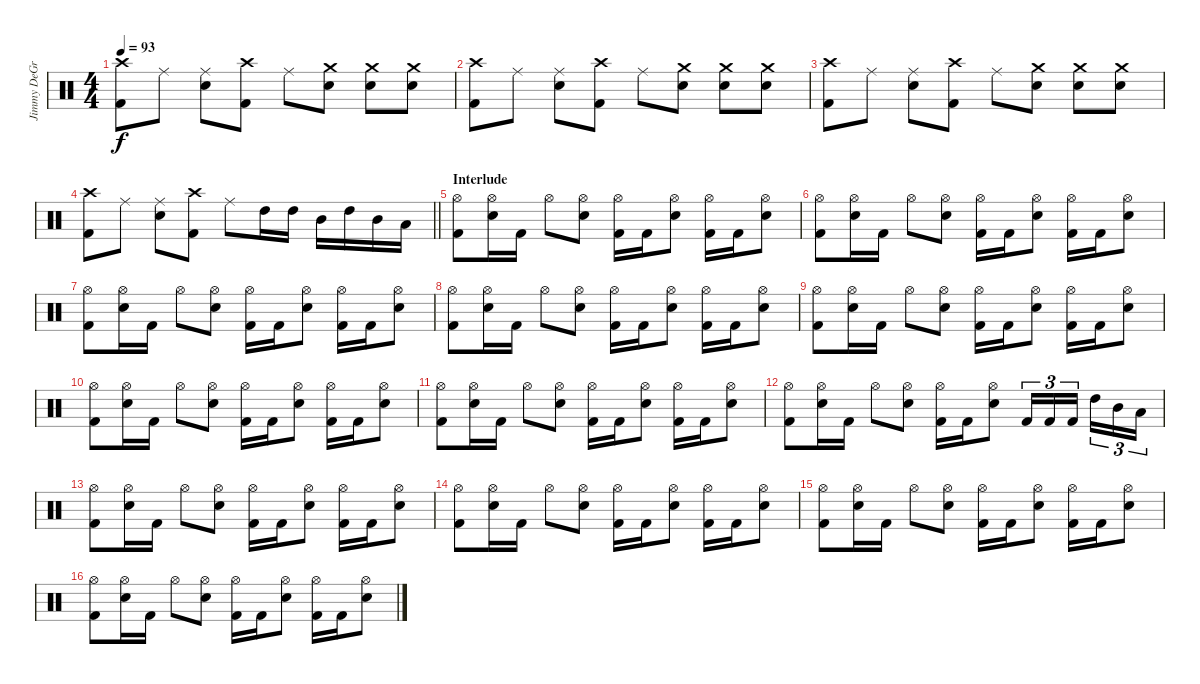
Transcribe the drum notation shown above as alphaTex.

\track ("Jimmy DeGrasso" "Jimmy DeGr") {instrument percussion}
\staff {score}
\articulation defaults
\ts (4 4)
\tempo 93
\clef neutral
\ks c
("Crash high (hit)" "Kick (hit) 2").8{dy f} "Ride (middle)".8 ("Ride (middle)" "Electric Snare (hit)").8 ("Crash high (hit)" "Kick (hit) 2").8 "Ride (middle)".8 ("Crash medium (hit)" "Electric Snare (hit)").8 ("Crash medium (hit)" "Electric Snare (hit)").8 ("Crash medium (hit)" "Electric Snare (hit)").8 |
("Crash high (hit)" "Kick (hit) 2").8 "Ride (middle)".8 ("Ride (middle)" "Electric Snare (hit)").8 ("Crash high (hit)" "Kick (hit) 2").8 "Ride (middle)".8 ("Crash medium (hit)" "Electric Snare (hit)").8 ("Crash medium (hit)" "Electric Snare (hit)").8 ("Crash medium (hit)" "Electric Snare (hit)").8 |
("Crash high (hit)" "Kick (hit) 2").8 "Ride (middle)".8 ("Ride (middle)" "Electric Snare (hit)").8 ("Crash high (hit)" "Kick (hit) 2").8 "Ride (middle)".8 ("Crash medium (hit)" "Electric Snare (hit)").8 ("Crash medium (hit)" "Electric Snare (hit)").8 ("Crash medium (hit)" "Electric Snare (hit)").8 |
\barLineRight lightlight
("Crash high (hit)" "Kick (hit) 2").8 "Ride (middle)".8 ("Ride (middle)" "Electric Snare (hit)").8 ("Crash high (hit)" "Kick (hit) 2").8 "Ride (middle)".8 "High Tom (hit)".16 "High Tom (hit)".16 "Mid Tom (hit)".16 "High Tom (hit)".16 "Mid Tom (hit)".16 "Low Tom (hit)".16 |
\section ("" "Interlude")
("Hi-Hat (open)" "Kick (hit) 2").8 ("Hi-Hat (open)" "Electric Snare (hit)").16 "Kick (hit) 2".16 "Hi-Hat (open)".8 ("Hi-Hat (open)" "Electric Snare (hit)").8 ("Hi-Hat (open)" "Kick (hit) 2").16 "Kick (hit) 2".16 ("Hi-Hat (open)" "Electric Snare (hit)").8 ("Hi-Hat (open)" "Kick (hit) 2").16 "Kick (hit) 2".16 ("Hi-Hat (open)" "Electric Snare (hit)").8 |
("Hi-Hat (open)" "Kick (hit) 2").8 ("Hi-Hat (open)" "Electric Snare (hit)").16 "Kick (hit) 2".16 "Hi-Hat (open)".8 ("Hi-Hat (open)" "Electric Snare (hit)").8 ("Hi-Hat (open)" "Kick (hit) 2").16 "Kick (hit) 2".16 ("Hi-Hat (open)" "Electric Snare (hit)").8 ("Hi-Hat (open)" "Kick (hit) 2").16 "Kick (hit) 2".16 ("Hi-Hat (open)" "Electric Snare (hit)").8 |
("Hi-Hat (open)" "Kick (hit) 2").8 ("Hi-Hat (open)" "Electric Snare (hit)").16 "Kick (hit) 2".16 "Hi-Hat (open)".8 ("Hi-Hat (open)" "Electric Snare (hit)").8 ("Hi-Hat (open)" "Kick (hit) 2").16 "Kick (hit) 2".16 ("Hi-Hat (open)" "Electric Snare (hit)").8 ("Hi-Hat (open)" "Kick (hit) 2").16 "Kick (hit) 2".16 ("Hi-Hat (open)" "Electric Snare (hit)").8 |
("Hi-Hat (open)" "Kick (hit) 2").8 ("Hi-Hat (open)" "Electric Snare (hit)").16 "Kick (hit) 2".16 "Hi-Hat (open)".8 ("Hi-Hat (open)" "Electric Snare (hit)").8 ("Hi-Hat (open)" "Kick (hit) 2").16 "Kick (hit) 2".16 ("Hi-Hat (open)" "Electric Snare (hit)").8 ("Hi-Hat (open)" "Kick (hit) 2").16 "Kick (hit) 2".16 ("Hi-Hat (open)" "Electric Snare (hit)").8 |
("Hi-Hat (open)" "Kick (hit) 2").8 ("Hi-Hat (open)" "Electric Snare (hit)").16 "Kick (hit) 2".16 "Hi-Hat (open)".8 ("Hi-Hat (open)" "Electric Snare (hit)").8 ("Hi-Hat (open)" "Kick (hit) 2").16 "Kick (hit) 2".16 ("Hi-Hat (open)" "Electric Snare (hit)").8 ("Hi-Hat (open)" "Kick (hit) 2").16 "Kick (hit) 2".16 ("Hi-Hat (open)" "Electric Snare (hit)").8 |
("Hi-Hat (open)" "Kick (hit) 2").8 ("Hi-Hat (open)" "Electric Snare (hit)").16 "Kick (hit) 2".16 "Hi-Hat (open)".8 ("Hi-Hat (open)" "Electric Snare (hit)").8 ("Hi-Hat (open)" "Kick (hit) 2").16 "Kick (hit) 2".16 ("Hi-Hat (open)" "Electric Snare (hit)").8 ("Hi-Hat (open)" "Kick (hit) 2").16 "Kick (hit) 2".16 ("Hi-Hat (open)" "Electric Snare (hit)").8 |
("Hi-Hat (open)" "Kick (hit) 2").8 ("Hi-Hat (open)" "Electric Snare (hit)").16 "Kick (hit) 2".16 "Hi-Hat (open)".8 ("Hi-Hat (open)" "Electric Snare (hit)").8 ("Hi-Hat (open)" "Kick (hit) 2").16 "Kick (hit) 2".16 ("Hi-Hat (open)" "Electric Snare (hit)").8 ("Hi-Hat (open)" "Kick (hit) 2").16 "Kick (hit) 2".16 ("Hi-Hat (open)" "Electric Snare (hit)").8 |
("Hi-Hat (open)" "Kick (hit) 2").8 ("Hi-Hat (open)" "Electric Snare (hit)").16 "Kick (hit) 2".16 "Hi-Hat (open)".8 ("Hi-Hat (open)" "Electric Snare (hit)").8 ("Hi-Hat (open)" "Kick (hit) 2").16 "Kick (hit) 2".16 ("Hi-Hat (open)" "Electric Snare (hit)").8 "Kick (hit) 2".16{tu (3 2)} "Kick (hit) 2".16{tu (3 2)} "Kick (hit) 2".16{tu (3 2) beam splitsecondary} "High Tom (hit)".16{tu (3 2)} "Mid Tom (hit)".16{tu (3 2)} "Low Tom (hit)".16{tu (3 2)} |
("Hi-Hat (open)" "Kick (hit) 2").8 ("Hi-Hat (open)" "Electric Snare (hit)").16 "Kick (hit) 2".16 "Hi-Hat (open)".8 ("Hi-Hat (open)" "Electric Snare (hit)").8 ("Hi-Hat (open)" "Kick (hit) 2").16 "Kick (hit) 2".16 ("Hi-Hat (open)" "Electric Snare (hit)").8 ("Hi-Hat (open)" "Kick (hit) 2").16 "Kick (hit) 2".16 ("Hi-Hat (open)" "Electric Snare (hit)").8 |
("Hi-Hat (open)" "Kick (hit) 2").8 ("Hi-Hat (open)" "Electric Snare (hit)").16 "Kick (hit) 2".16 "Hi-Hat (open)".8 ("Hi-Hat (open)" "Electric Snare (hit)").8 ("Hi-Hat (open)" "Kick (hit) 2").16 "Kick (hit) 2".16 ("Hi-Hat (open)" "Electric Snare (hit)").8 ("Hi-Hat (open)" "Kick (hit) 2").16 "Kick (hit) 2".16 ("Hi-Hat (open)" "Electric Snare (hit)").8 |
("Hi-Hat (open)" "Kick (hit) 2").8 ("Hi-Hat (open)" "Electric Snare (hit)").16 "Kick (hit) 2".16 "Hi-Hat (open)".8 ("Hi-Hat (open)" "Electric Snare (hit)").8 ("Hi-Hat (open)" "Kick (hit) 2").16 "Kick (hit) 2".16 ("Hi-Hat (open)" "Electric Snare (hit)").8 ("Hi-Hat (open)" "Kick (hit) 2").16 "Kick (hit) 2".16 ("Hi-Hat (open)" "Electric Snare (hit)").8 |
("Hi-Hat (open)" "Kick (hit) 2").8 ("Hi-Hat (open)" "Electric Snare (hit)").16 "Kick (hit) 2".16 "Hi-Hat (open)".8 ("Hi-Hat (open)" "Electric Snare (hit)").8 ("Hi-Hat (open)" "Kick (hit) 2").16 "Kick (hit) 2".16 ("Hi-Hat (open)" "Electric Snare (hit)").8 ("Hi-Hat (open)" "Kick (hit) 2").16 "Kick (hit) 2".16 ("Hi-Hat (open)" "Electric Snare (hit)").8
